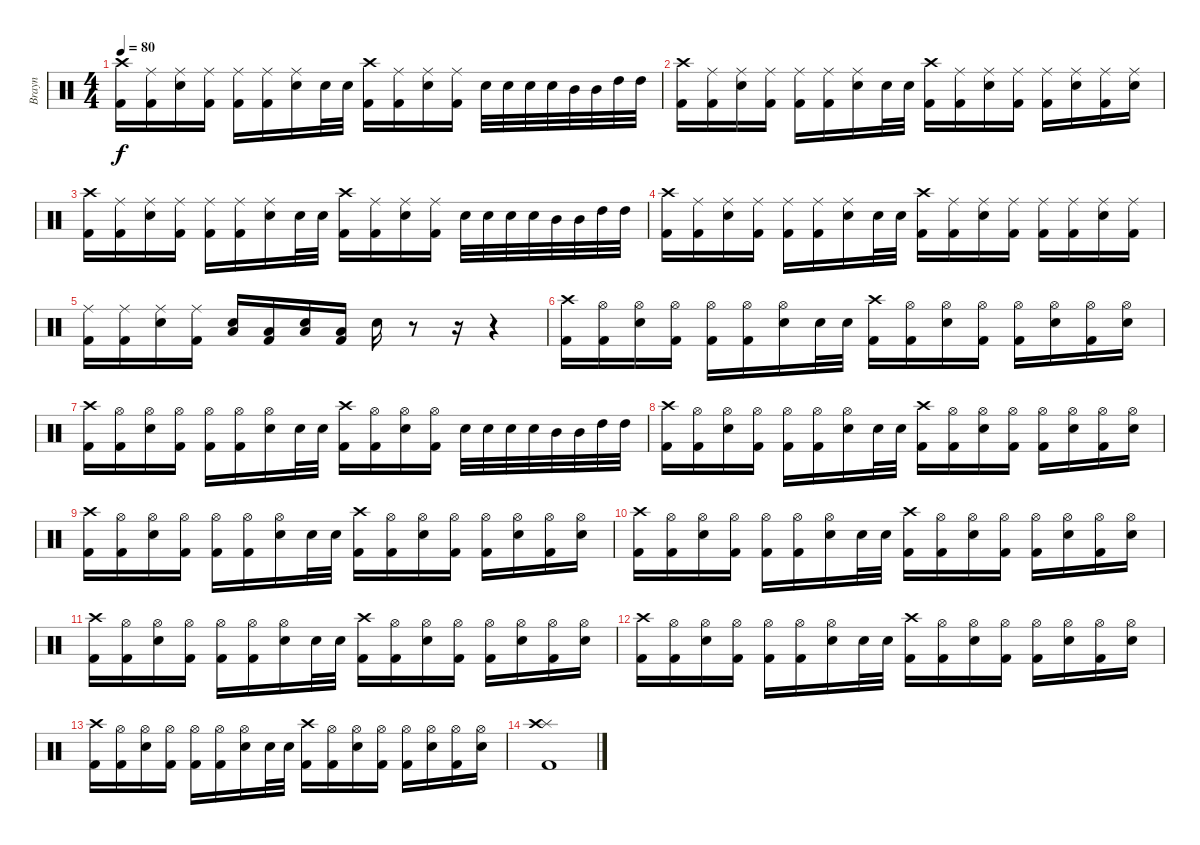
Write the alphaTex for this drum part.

\track ("Brayn" "Brayn") {instrument percussion}
\staff {score}
\articulation defaults
\ts (4 4)
\tempo 80
\clef neutral
\ks c
("Crash high (hit)" "Kick (hit) 2").16{dy f} ("Ride (middle)" "Kick (hit) 2").16 ("Ride (middle)" "Snare (hit) 2").16 ("Ride (middle)" "Kick (hit) 2").16 ("Ride (middle)" "Kick (hit) 2").16 ("Ride (middle)" "Kick (hit) 2").16 ("Ride (middle)" "Snare (hit) 2").16 "Snare (hit) 2".32 "Snare (hit) 2".32 ("Crash high (hit)" "Kick (hit) 2").16 ("Ride (middle)" "Kick (hit) 2").16 ("Ride (middle)" "Snare (hit) 2").16 ("Ride (middle)" "Kick (hit) 2").16 "Snare (hit) 2".32 "Snare (hit) 2".32 "Snare (hit) 2".32 "Snare (hit) 2".32 "Mid Tom (hit)".32 "Mid Tom (hit)".32 "High Tom (hit)".32 "High Tom (hit)".32 |
("Crash high (hit)" "Kick (hit) 2").16 ("Ride (middle)" "Kick (hit) 2").16 ("Ride (middle)" "Snare (hit) 2").16 ("Ride (middle)" "Kick (hit) 2").16 ("Ride (middle)" "Kick (hit) 2").16 ("Ride (middle)" "Kick (hit) 2").16 ("Ride (middle)" "Snare (hit) 2").16 "Snare (hit) 2".32 "Snare (hit) 2".32 ("Crash high (hit)" "Kick (hit) 2").16 ("Ride (middle)" "Kick (hit) 2").16 ("Ride (middle)" "Snare (hit) 2").16 ("Ride (middle)" "Kick (hit) 2").16 ("Ride (middle)" "Kick (hit) 2").16 ("Ride (middle)" "Snare (hit) 2").16 ("Ride (middle)" "Kick (hit) 2").16 ("Ride (middle)" "Snare (hit) 2").16 |
("Crash high (hit)" "Kick (hit) 2").16 ("Ride (middle)" "Kick (hit) 2").16 ("Ride (middle)" "Snare (hit) 2").16 ("Ride (middle)" "Kick (hit) 2").16 ("Ride (middle)" "Kick (hit) 2").16 ("Ride (middle)" "Kick (hit) 2").16 ("Ride (middle)" "Snare (hit) 2").16 "Snare (hit) 2".32 "Snare (hit) 2".32 ("Crash high (hit)" "Kick (hit) 2").16 ("Ride (middle)" "Kick (hit) 2").16 ("Ride (middle)" "Snare (hit) 2").16 ("Ride (middle)" "Kick (hit) 2").16 "Snare (hit) 2".32 "Snare (hit) 2".32 "Snare (hit) 2".32 "Snare (hit) 2".32 "Mid Tom (hit)".32 "Mid Tom (hit)".32 "High Tom (hit)".32 "High Tom (hit)".32 |
("Crash high (hit)" "Kick (hit) 2").16 ("Ride (middle)" "Kick (hit) 2").16 ("Ride (middle)" "Snare (hit) 2").16 ("Ride (middle)" "Kick (hit) 2").16 ("Ride (middle)" "Kick (hit) 2").16 ("Ride (middle)" "Kick (hit) 2").16 ("Ride (middle)" "Snare (hit) 2").16 "Snare (hit) 2".32 "Snare (hit) 2".32 ("Crash high (hit)" "Kick (hit) 2").16 ("Ride (middle)" "Kick (hit) 2").16 ("Ride (middle)" "Snare (hit) 2").16 ("Ride (middle)" "Kick (hit) 2").16 ("Ride (middle)" "Kick (hit) 2").16 ("Ride (middle)" "Kick (hit) 2").16 ("Ride (middle)" "Snare (hit) 2").16 ("Ride (middle)" "Kick (hit) 2").16 |
("Ride (middle)" "Kick (hit) 2").16 ("Ride (middle)" "Kick (hit) 2").16 ("Ride (middle)" "Snare (hit) 2").16 ("Ride (middle)" "Kick (hit) 2").16 ("Low Tom (hit)" "Snare (hit) 2").16 ("Low Tom (hit)" "Kick (hit) 2").16 ("Low Tom (hit)" "Snare (hit) 2").16 ("Low Tom (hit)" "Kick (hit) 2").16 "Snare (hit) 2".16 r.8 r.16 r.4 |
("Crash high (hit)" "Kick (hit) 2").16 ("Hi-Hat (open)" "Kick (hit) 2").16 ("Hi-Hat (open)" "Snare (hit) 2").16 ("Hi-Hat (open)" "Kick (hit) 2").16 ("Hi-Hat (open)" "Kick (hit) 2").16 ("Hi-Hat (open)" "Kick (hit) 2").16 ("Hi-Hat (open)" "Snare (hit) 2").16 "Snare (hit) 2".32 "Snare (hit) 2".32 ("Crash high (hit)" "Kick (hit) 2").16 ("Hi-Hat (open)" "Kick (hit) 2").16 ("Hi-Hat (open)" "Snare (hit) 2").16 ("Hi-Hat (open)" "Kick (hit) 2").16 ("Hi-Hat (open)" "Kick (hit) 2").16 ("Hi-Hat (open)" "Snare (hit) 2").16 ("Hi-Hat (open)" "Kick (hit) 2").16 ("Hi-Hat (open)" "Snare (hit) 2").16 |
("Crash high (hit)" "Kick (hit) 2").16 ("Hi-Hat (open)" "Kick (hit) 2").16 ("Hi-Hat (open)" "Snare (hit) 2").16 ("Hi-Hat (open)" "Kick (hit) 2").16 ("Hi-Hat (open)" "Kick (hit) 2").16 ("Hi-Hat (open)" "Kick (hit) 2").16 ("Hi-Hat (open)" "Snare (hit) 2").16 "Snare (hit) 2".32 "Snare (hit) 2".32 ("Crash high (hit)" "Kick (hit) 2").16 ("Hi-Hat (open)" "Kick (hit) 2").16 ("Hi-Hat (open)" "Snare (hit) 2").16 ("Hi-Hat (open)" "Kick (hit) 2").16 "Snare (hit) 2".32 "Snare (hit) 2".32 "Snare (hit) 2".32 "Snare (hit) 2".32 "Mid Tom (hit)".32 "Mid Tom (hit)".32 "High Tom (hit)".32 "High Tom (hit)".32 |
("Crash high (hit)" "Kick (hit) 2").16 ("Hi-Hat (open)" "Kick (hit) 2").16 ("Hi-Hat (open)" "Snare (hit) 2").16 ("Hi-Hat (open)" "Kick (hit) 2").16 ("Hi-Hat (open)" "Kick (hit) 2").16 ("Hi-Hat (open)" "Kick (hit) 2").16 ("Hi-Hat (open)" "Snare (hit) 2").16 "Snare (hit) 2".32 "Snare (hit) 2".32 ("Crash high (hit)" "Kick (hit) 2").16 ("Hi-Hat (open)" "Kick (hit) 2").16 ("Hi-Hat (open)" "Snare (hit) 2").16 ("Hi-Hat (open)" "Kick (hit) 2").16 ("Hi-Hat (open)" "Kick (hit) 2").16 ("Hi-Hat (open)" "Snare (hit) 2").16 ("Hi-Hat (open)" "Kick (hit) 2").16 ("Hi-Hat (open)" "Snare (hit) 2").16 |
("Crash high (hit)" "Kick (hit) 2").16 ("Hi-Hat (open)" "Kick (hit) 2").16 ("Hi-Hat (open)" "Snare (hit) 2").16 ("Hi-Hat (open)" "Kick (hit) 2").16 ("Hi-Hat (open)" "Kick (hit) 2").16 ("Hi-Hat (open)" "Kick (hit) 2").16 ("Hi-Hat (open)" "Snare (hit) 2").16 "Snare (hit) 2".32 "Snare (hit) 2".32 ("Crash high (hit)" "Kick (hit) 2").16 ("Hi-Hat (open)" "Kick (hit) 2").16 ("Hi-Hat (open)" "Snare (hit) 2").16 ("Hi-Hat (open)" "Kick (hit) 2").16 ("Hi-Hat (open)" "Kick (hit) 2").16 ("Hi-Hat (open)" "Snare (hit) 2").16 ("Hi-Hat (open)" "Kick (hit) 2").16 ("Hi-Hat (open)" "Snare (hit) 2").16 |
("Crash high (hit)" "Kick (hit) 2").16 ("Hi-Hat (open)" "Kick (hit) 2").16 ("Hi-Hat (open)" "Snare (hit) 2").16 ("Hi-Hat (open)" "Kick (hit) 2").16 ("Hi-Hat (open)" "Kick (hit) 2").16 ("Hi-Hat (open)" "Kick (hit) 2").16 ("Hi-Hat (open)" "Snare (hit) 2").16 "Snare (hit) 2".32 "Snare (hit) 2".32 ("Crash high (hit)" "Kick (hit) 2").16 ("Hi-Hat (open)" "Kick (hit) 2").16 ("Hi-Hat (open)" "Snare (hit) 2").16 ("Hi-Hat (open)" "Kick (hit) 2").16 ("Hi-Hat (open)" "Kick (hit) 2").16 ("Hi-Hat (open)" "Snare (hit) 2").16 ("Hi-Hat (open)" "Kick (hit) 2").16 ("Hi-Hat (open)" "Snare (hit) 2").16 |
("Crash high (hit)" "Kick (hit) 2").16 ("Hi-Hat (open)" "Kick (hit) 2").16 ("Hi-Hat (open)" "Snare (hit) 2").16 ("Hi-Hat (open)" "Kick (hit) 2").16 ("Hi-Hat (open)" "Kick (hit) 2").16 ("Hi-Hat (open)" "Kick (hit) 2").16 ("Hi-Hat (open)" "Snare (hit) 2").16 "Snare (hit) 2".32 "Snare (hit) 2".32 ("Crash high (hit)" "Kick (hit) 2").16 ("Hi-Hat (open)" "Kick (hit) 2").16 ("Hi-Hat (open)" "Snare (hit) 2").16 ("Hi-Hat (open)" "Kick (hit) 2").16 ("Hi-Hat (open)" "Kick (hit) 2").16 ("Hi-Hat (open)" "Snare (hit) 2").16 ("Hi-Hat (open)" "Kick (hit) 2").16 ("Hi-Hat (open)" "Snare (hit) 2").16 |
("Crash high (hit)" "Kick (hit) 2").16 ("Hi-Hat (open)" "Kick (hit) 2").16 ("Hi-Hat (open)" "Snare (hit) 2").16 ("Hi-Hat (open)" "Kick (hit) 2").16 ("Hi-Hat (open)" "Kick (hit) 2").16 ("Hi-Hat (open)" "Kick (hit) 2").16 ("Hi-Hat (open)" "Snare (hit) 2").16 "Snare (hit) 2".32 "Snare (hit) 2".32 ("Crash high (hit)" "Kick (hit) 2").16 ("Hi-Hat (open)" "Kick (hit) 2").16 ("Hi-Hat (open)" "Snare (hit) 2").16 ("Hi-Hat (open)" "Kick (hit) 2").16 ("Hi-Hat (open)" "Kick (hit) 2").16 ("Hi-Hat (open)" "Snare (hit) 2").16 ("Hi-Hat (open)" "Kick (hit) 2").16 ("Hi-Hat (open)" "Snare (hit) 2").16 |
("Crash high (hit)" "Kick (hit) 2").16 ("Hi-Hat (open)" "Kick (hit) 2").16 ("Hi-Hat (open)" "Snare (hit) 2").16 ("Hi-Hat (open)" "Kick (hit) 2").16 ("Hi-Hat (open)" "Kick (hit) 2").16 ("Hi-Hat (open)" "Kick (hit) 2").16 ("Hi-Hat (open)" "Snare (hit) 2").16 "Snare (hit) 2".32 "Snare (hit) 2".32 ("Crash high (hit)" "Kick (hit) 2").16 ("Hi-Hat (open)" "Kick (hit) 2").16 ("Hi-Hat (open)" "Snare (hit) 2").16 ("Hi-Hat (open)" "Kick (hit) 2").16 ("Hi-Hat (open)" "Kick (hit) 2").16 ("Hi-Hat (open)" "Snare (hit) 2").16 ("Hi-Hat (open)" "Kick (hit) 2").16 ("Hi-Hat (open)" "Snare (hit) 2").16 |
("Splash (hit)" "Crash high (hit)" "Kick (hit) 2").1
